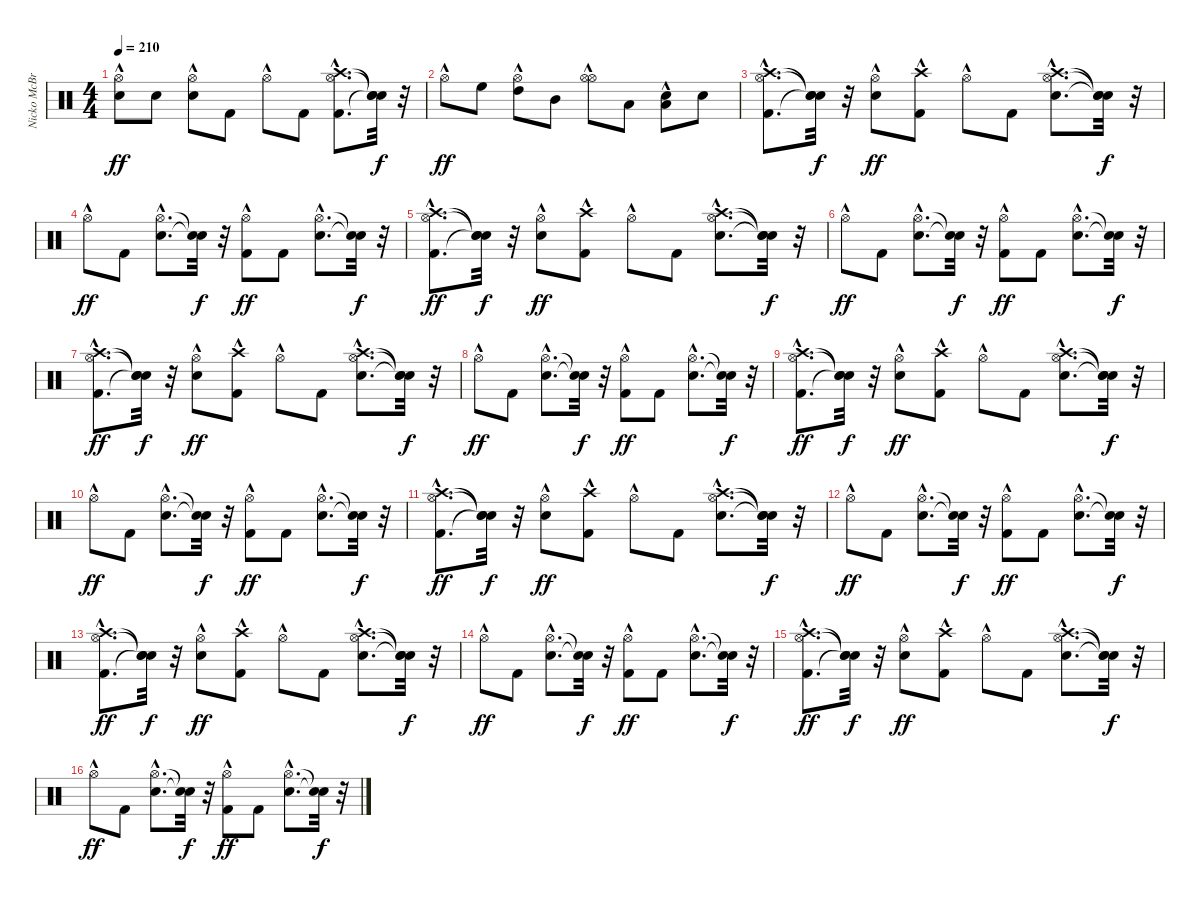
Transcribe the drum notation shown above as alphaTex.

\track ("Nicko McBrain" "Nicko McBr") {instrument percussion}
\staff {score}
\articulation defaults
\ts (4 4)
\tempo 210
\clef neutral
\ks c
("Snare (hit) 2" "Hi-Hat (open)"{hac}).8{dy ff} "Snare (hit) 2".8 ("Snare (hit) 2" "Hi-Hat (open)"{hac}).8 "Kick (hit) 2".8 "Hi-Hat (open)"{hac}.8 "Kick (hit) 2".8 ("Kick (hit) 2"{hac} "Hi-Hat (open)"{hac} "Crash high (hit)"{hac}).8{d} ("Snare (hit)"{t} "Snare (hit)"{t} "Snare (hit)"{t}).32{dy f} r.32 |
"Hi-Hat (open)"{hac}.8{dy ff} "High Floor Tom (hit)".8 ("Hi-Hat (open)"{hac} "High Tom (hit)").8 "Mid Tom (hit)".8 ("Hi-Hat (open)"{hac} "Hi-Hat (open)"{hac}).8 "Low Tom (hit)".8 ("Snare (hit) 2" "Low Tom (hit)"{hac}).8 "Snare (hit) 2".8 |
("Kick (hit) 2"{hac} "Hi-Hat (open)"{hac} "Crash high (hit)"{hac}).8{d} ("Snare (hit)"{t} "Snare (hit)"{t} "Snare (hit)"{t}).32{dy f} r.32 ("Snare (hit) 2" "Hi-Hat (open)"{hac}).8{dy ff} ("Kick (hit) 2" "Crash high (hit)"{hac}).8 "Hi-Hat (open)"{hac}.8 "Kick (hit) 2".8 ("Snare (hit) 2"{hac} "Hi-Hat (open)"{hac} "Crash high (hit)"{hac}).8{d} ("Snare (hit)"{t} "Snare (hit)"{t} "Snare (hit)"{t}).32{dy f} r.32 |
"Hi-Hat (open)"{hac}.8{dy ff} "Kick (hit) 2".8 ("Snare (hit) 2"{hac} "Hi-Hat (open)"{hac}).8{d} ("Snare (hit)"{t} "Snare (hit)"{t}).32{dy f} r.32 ("Kick (hit) 2" "Hi-Hat (open)"{hac}).8{dy ff} "Kick (hit) 2".8 ("Snare (hit) 2"{hac} "Hi-Hat (open)"{hac}).8{d} ("Snare (hit)"{t} "Snare (hit)"{t}).32{dy f} r.32 |
("Kick (hit) 2"{hac} "Hi-Hat (open)"{hac} "Crash high (hit)"{hac}).8{d dy ff} ("Snare (hit)"{t} "Snare (hit)"{t} "Snare (hit)"{t}).32{dy f} r.32 ("Snare (hit) 2" "Hi-Hat (open)"{hac}).8{dy ff} ("Kick (hit) 2" "Crash high (hit)"{hac}).8 "Hi-Hat (open)"{hac}.8 "Kick (hit) 2".8 ("Snare (hit) 2"{hac} "Hi-Hat (open)"{hac} "Crash high (hit)"{hac}).8{d} ("Snare (hit)"{t} "Snare (hit)"{t} "Snare (hit)"{t}).32{dy f} r.32 |
"Hi-Hat (open)"{hac}.8{dy ff} "Kick (hit) 2".8 ("Snare (hit) 2"{hac} "Hi-Hat (open)"{hac}).8{d} ("Snare (hit)"{t} "Snare (hit)"{t}).32{dy f} r.32 ("Kick (hit) 2" "Hi-Hat (open)"{hac}).8{dy ff} "Kick (hit) 2".8 ("Snare (hit) 2"{hac} "Hi-Hat (open)"{hac}).8{d} ("Snare (hit)"{t} "Snare (hit)"{t}).32{dy f} r.32 |
("Kick (hit) 2"{hac} "Hi-Hat (open)"{hac} "Crash high (hit)"{hac}).8{d dy ff} ("Snare (hit)"{t} "Snare (hit)"{t} "Snare (hit)"{t}).32{dy f} r.32 ("Snare (hit) 2" "Hi-Hat (open)"{hac}).8{dy ff} ("Kick (hit) 2" "Crash high (hit)"{hac}).8 "Hi-Hat (open)"{hac}.8 "Kick (hit) 2".8 ("Snare (hit) 2"{hac} "Hi-Hat (open)"{hac} "Crash high (hit)"{hac}).8{d} ("Snare (hit)"{t} "Snare (hit)"{t} "Snare (hit)"{t}).32{dy f} r.32 |
"Hi-Hat (open)"{hac}.8{dy ff} "Kick (hit) 2".8 ("Snare (hit) 2"{hac} "Hi-Hat (open)"{hac}).8{d} ("Snare (hit)"{t} "Snare (hit)"{t}).32{dy f} r.32 ("Kick (hit) 2" "Hi-Hat (open)"{hac}).8{dy ff} "Kick (hit) 2".8 ("Snare (hit) 2"{hac} "Hi-Hat (open)"{hac}).8{d} ("Snare (hit)"{t} "Snare (hit)"{t}).32{dy f} r.32 |
("Kick (hit) 2"{hac} "Hi-Hat (open)"{hac} "Crash high (hit)"{hac}).8{d dy ff} ("Snare (hit)"{t} "Snare (hit)"{t} "Snare (hit)"{t}).32{dy f} r.32 ("Snare (hit) 2" "Hi-Hat (open)"{hac}).8{dy ff} ("Kick (hit) 2" "Crash high (hit)"{hac}).8 "Hi-Hat (open)"{hac}.8 "Kick (hit) 2".8 ("Snare (hit) 2"{hac} "Hi-Hat (open)"{hac} "Crash high (hit)"{hac}).8{d} ("Snare (hit)"{t} "Snare (hit)"{t} "Snare (hit)"{t}).32{dy f} r.32 |
"Hi-Hat (open)"{hac}.8{dy ff} "Kick (hit) 2".8 ("Snare (hit) 2"{hac} "Hi-Hat (open)"{hac}).8{d} ("Snare (hit)"{t} "Snare (hit)"{t}).32{dy f} r.32 ("Kick (hit) 2" "Hi-Hat (open)"{hac}).8{dy ff} "Kick (hit) 2".8 ("Snare (hit) 2"{hac} "Hi-Hat (open)"{hac}).8{d} ("Snare (hit)"{t} "Snare (hit)"{t}).32{dy f} r.32 |
("Kick (hit) 2"{hac} "Hi-Hat (open)"{hac} "Crash high (hit)"{hac}).8{d dy ff} ("Snare (hit)"{t} "Snare (hit)"{t} "Snare (hit)"{t}).32{dy f} r.32 ("Snare (hit) 2" "Hi-Hat (open)"{hac}).8{dy ff} ("Kick (hit) 2" "Crash high (hit)"{hac}).8 "Hi-Hat (open)"{hac}.8 "Kick (hit) 2".8 ("Snare (hit) 2"{hac} "Hi-Hat (open)"{hac} "Crash high (hit)"{hac}).8{d} ("Snare (hit)"{t} "Snare (hit)"{t} "Snare (hit)"{t}).32{dy f} r.32 |
"Hi-Hat (open)"{hac}.8{dy ff} "Kick (hit) 2".8 ("Snare (hit) 2"{hac} "Hi-Hat (open)"{hac}).8{d} ("Snare (hit)"{t} "Snare (hit)"{t}).32{dy f} r.32 ("Kick (hit) 2" "Hi-Hat (open)"{hac}).8{dy ff} "Kick (hit) 2".8 ("Snare (hit) 2"{hac} "Hi-Hat (open)"{hac}).8{d} ("Snare (hit)"{t} "Snare (hit)"{t}).32{dy f} r.32 |
("Kick (hit) 2"{hac} "Hi-Hat (open)"{hac} "Crash high (hit)"{hac}).8{d dy ff} ("Snare (hit)"{t} "Snare (hit)"{t} "Snare (hit)"{t}).32{dy f} r.32 ("Snare (hit) 2" "Hi-Hat (open)"{hac}).8{dy ff} ("Kick (hit) 2" "Crash high (hit)"{hac}).8 "Hi-Hat (open)"{hac}.8 "Kick (hit) 2".8 ("Snare (hit) 2"{hac} "Hi-Hat (open)"{hac} "Crash high (hit)"{hac}).8{d} ("Snare (hit)"{t} "Snare (hit)"{t} "Snare (hit)"{t}).32{dy f} r.32 |
"Hi-Hat (open)"{hac}.8{dy ff} "Kick (hit) 2".8 ("Snare (hit) 2"{hac} "Hi-Hat (open)"{hac}).8{d} ("Snare (hit)"{t} "Snare (hit)"{t}).32{dy f} r.32 ("Kick (hit) 2" "Hi-Hat (open)"{hac}).8{dy ff} "Kick (hit) 2".8 ("Snare (hit) 2"{hac} "Hi-Hat (open)"{hac}).8{d} ("Snare (hit)"{t} "Snare (hit)"{t}).32{dy f} r.32 |
("Kick (hit) 2"{hac} "Hi-Hat (open)"{hac} "Crash high (hit)"{hac}).8{d dy ff} ("Snare (hit)"{t} "Snare (hit)"{t} "Snare (hit)"{t}).32{dy f} r.32 ("Snare (hit) 2" "Hi-Hat (open)"{hac}).8{dy ff} ("Kick (hit) 2" "Crash high (hit)"{hac}).8 "Hi-Hat (open)"{hac}.8 "Kick (hit) 2".8 ("Snare (hit) 2"{hac} "Hi-Hat (open)"{hac} "Crash high (hit)"{hac}).8{d} ("Snare (hit)"{t} "Snare (hit)"{t} "Snare (hit)"{t}).32{dy f} r.32 |
"Hi-Hat (open)"{hac}.8{dy ff} "Kick (hit) 2".8 ("Snare (hit) 2"{hac} "Hi-Hat (open)"{hac}).8{d} ("Snare (hit)"{t} "Snare (hit)"{t}).32{dy f} r.32 ("Kick (hit) 2" "Hi-Hat (open)"{hac}).8{dy ff} "Kick (hit) 2".8 ("Snare (hit) 2"{hac} "Hi-Hat (open)"{hac}).8{d} ("Snare (hit)"{t} "Snare (hit)"{t}).32{dy f} r.32
